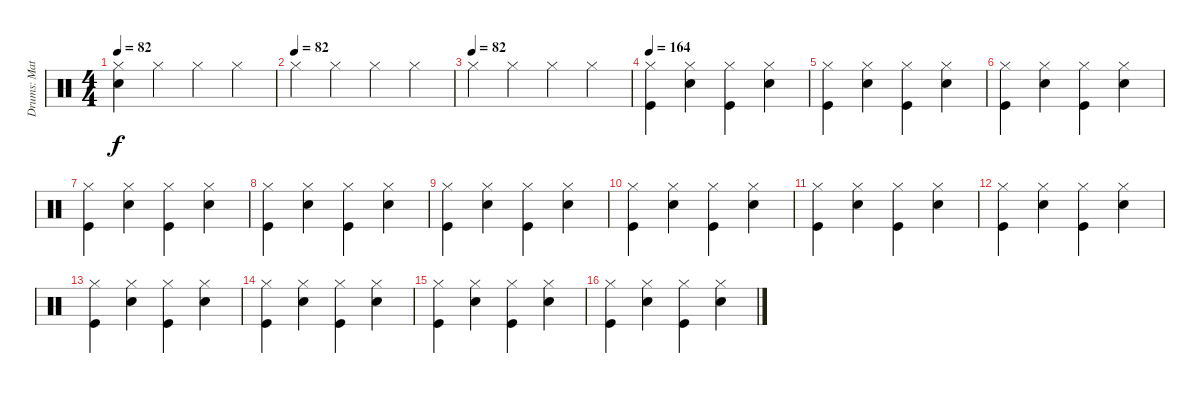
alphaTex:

\track ("Drums: Matt" "Drums: Mat") {instrument percussion}
\staff {score}
\articulation defaults
\ts (4 4)
\tempo 82
\clef neutral
\ks c
("Electric Snare (hit)" "Hi-Hat (closed)").4{dy f} "Hi-Hat (closed)".4 "Hi-Hat (closed)".4 "Hi-Hat (closed)".4 |
\tempo (82)
"Hi-Hat (closed)".4 "Hi-Hat (closed)".4 "Hi-Hat (closed)".4 "Hi-Hat (closed)".4 |
\tempo (82)
"Hi-Hat (closed)".4 "Hi-Hat (closed)".4 "Hi-Hat (closed)".4 "Hi-Hat (closed)".4 |
\tempo 164
("Hi-Hat (closed)" "Kick (hit)").4 ("Hi-Hat (closed)" "Snare (hit) 2").4 ("Hi-Hat (closed)" "Kick (hit)").4 ("Hi-Hat (closed)" "Snare (hit) 2").4 |
("Hi-Hat (closed)" "Kick (hit)").4 ("Hi-Hat (closed)" "Snare (hit) 2").4 ("Hi-Hat (closed)" "Kick (hit)").4 ("Hi-Hat (closed)" "Snare (hit) 2").4 |
("Hi-Hat (closed)" "Kick (hit)").4 ("Hi-Hat (closed)" "Snare (hit) 2").4 ("Hi-Hat (closed)" "Kick (hit)").4 ("Hi-Hat (closed)" "Snare (hit) 2").4 |
("Hi-Hat (closed)" "Kick (hit)").4 ("Hi-Hat (closed)" "Snare (hit) 2").4 ("Hi-Hat (closed)" "Kick (hit)").4 ("Hi-Hat (closed)" "Snare (hit) 2").4 |
("Hi-Hat (closed)" "Kick (hit)").4 ("Hi-Hat (closed)" "Snare (hit) 2").4 ("Hi-Hat (closed)" "Kick (hit)").4 ("Hi-Hat (closed)" "Snare (hit) 2").4 |
("Hi-Hat (closed)" "Kick (hit)").4 ("Hi-Hat (closed)" "Snare (hit) 2").4 ("Hi-Hat (closed)" "Kick (hit)").4 ("Hi-Hat (closed)" "Snare (hit) 2").4 |
("Hi-Hat (closed)" "Kick (hit)").4 ("Hi-Hat (closed)" "Snare (hit) 2").4 ("Hi-Hat (closed)" "Kick (hit)").4 ("Hi-Hat (closed)" "Snare (hit) 2").4 |
("Hi-Hat (closed)" "Kick (hit)").4 ("Hi-Hat (closed)" "Snare (hit) 2").4 ("Hi-Hat (closed)" "Kick (hit)").4 ("Hi-Hat (closed)" "Snare (hit) 2").4 |
("Hi-Hat (closed)" "Kick (hit)").4 ("Hi-Hat (closed)" "Snare (hit) 2").4 ("Hi-Hat (closed)" "Kick (hit)").4 ("Hi-Hat (closed)" "Snare (hit) 2").4 |
("Hi-Hat (closed)" "Kick (hit)").4 ("Hi-Hat (closed)" "Snare (hit) 2").4 ("Hi-Hat (closed)" "Kick (hit)").4 ("Hi-Hat (closed)" "Snare (hit) 2").4 |
("Hi-Hat (closed)" "Kick (hit)").4 ("Hi-Hat (closed)" "Snare (hit) 2").4 ("Hi-Hat (closed)" "Kick (hit)").4 ("Hi-Hat (closed)" "Snare (hit) 2").4 |
("Hi-Hat (closed)" "Kick (hit)").4 ("Hi-Hat (closed)" "Snare (hit) 2").4 ("Hi-Hat (closed)" "Kick (hit)").4 ("Hi-Hat (closed)" "Snare (hit) 2").4 |
("Hi-Hat (closed)" "Kick (hit)").4 ("Hi-Hat (closed)" "Snare (hit) 2").4 ("Hi-Hat (closed)" "Kick (hit)").4 ("Hi-Hat (closed)" "Snare (hit) 2").4
